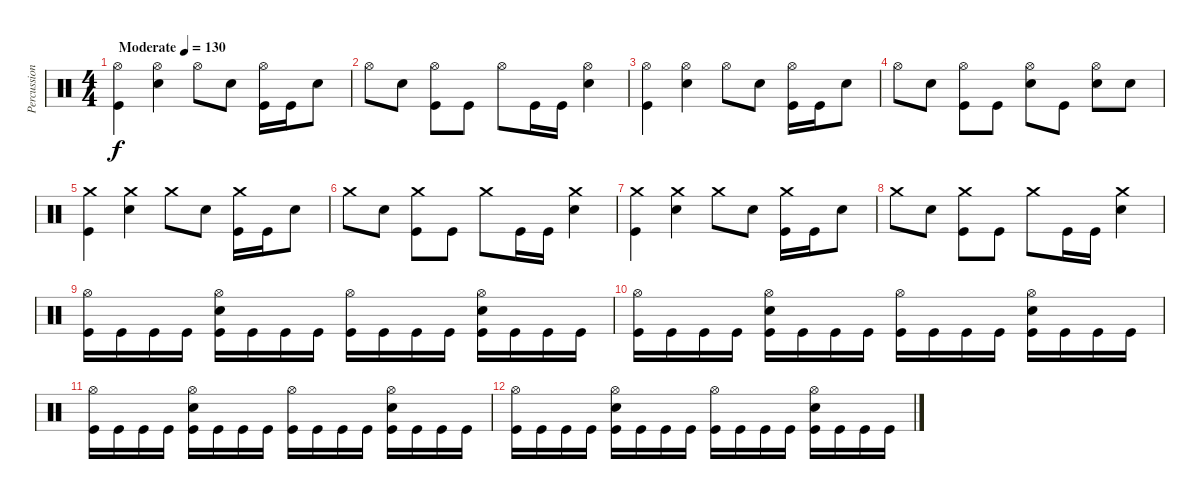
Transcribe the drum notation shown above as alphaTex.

\track ("Percussion" "Percussion") {instrument percussion}
\staff {score}
\articulation defaults
\ts (4 4)
\tempo (130 "Moderate")
\clef neutral
\ks c
("Hi-Hat (open)" "Kick (hit)").4{dy f} ("Hi-Hat (open)" "Snare (hit) 2").4 "Hi-Hat (open)".8 "Snare (hit) 2".8 ("Hi-Hat (open)" "Kick (hit)").16 "Kick (hit)".16 "Snare (hit) 2".8 |
"Hi-Hat (open)".8 "Snare (hit) 2".8 ("Hi-Hat (open)" "Kick (hit)").8 "Kick (hit)".8 "Hi-Hat (open)".8 "Kick (hit)".16 "Kick (hit)".16 ("Hi-Hat (open)" "Snare (hit) 2").4 |
("Hi-Hat (open)" "Kick (hit)").4 ("Hi-Hat (open)" "Snare (hit) 2").4 "Hi-Hat (open)".8 "Snare (hit) 2".8 ("Hi-Hat (open)" "Kick (hit)").16 "Kick (hit)".16 "Snare (hit) 2".8 |
"Hi-Hat (open)".8 "Snare (hit) 2".8 ("Hi-Hat (open)" "Kick (hit)").8 "Kick (hit)".8 ("Hi-Hat (open)" "Snare (hit) 2").8 "Kick (hit)".8 ("Hi-Hat (open)" "Snare (hit) 2").8 "Snare (hit) 2".8 |
("Crash medium (hit)" "Kick (hit)").4 ("Crash medium (hit)" "Snare (hit) 2").4 "Crash medium (hit)".8 "Snare (hit) 2".8 ("Crash medium (hit)" "Kick (hit)").16 "Kick (hit)".16 "Snare (hit) 2".8 |
"Crash medium (hit)".8 "Snare (hit) 2".8 ("Crash medium (hit)" "Kick (hit)").8 "Kick (hit)".8 "Crash medium (hit)".8 "Kick (hit)".16 "Kick (hit)".16 ("Crash medium (hit)" "Snare (hit) 2").4 |
("Crash medium (hit)" "Kick (hit)").4 ("Crash medium (hit)" "Snare (hit) 2").4 "Crash medium (hit)".8 "Snare (hit) 2".8 ("Crash medium (hit)" "Kick (hit)").16 "Kick (hit)".16 "Snare (hit) 2".8 |
"Crash medium (hit)".8 "Snare (hit) 2".8 ("Crash medium (hit)" "Kick (hit)").8 "Kick (hit)".8 "Crash medium (hit)".8 "Kick (hit)".16 "Kick (hit)".16 ("Crash medium (hit)" "Snare (hit) 2").4 |
("Hi-Hat (open)" "Kick (hit)").16 "Kick (hit)".16 "Kick (hit)".16 "Kick (hit)".16 ("Hi-Hat (open)" "Snare (hit) 2" "Kick (hit)").16 "Kick (hit)".16 "Kick (hit)".16 "Kick (hit)".16 ("Hi-Hat (open)" "Kick (hit)").16 "Kick (hit)".16 "Kick (hit)".16 "Kick (hit)".16 ("Hi-Hat (open)" "Snare (hit) 2" "Kick (hit)").16 "Kick (hit)".16 "Kick (hit)".16 "Kick (hit)".16 |
("Hi-Hat (open)" "Kick (hit)").16 "Kick (hit)".16 "Kick (hit)".16 "Kick (hit)".16 ("Hi-Hat (open)" "Snare (hit) 2" "Kick (hit)").16 "Kick (hit)".16 "Kick (hit)".16 "Kick (hit)".16 ("Hi-Hat (open)" "Kick (hit)").16 "Kick (hit)".16 "Kick (hit)".16 "Kick (hit)".16 ("Hi-Hat (open)" "Snare (hit) 2" "Kick (hit)").16 "Kick (hit)".16 "Kick (hit)".16 "Kick (hit)".16 |
("Hi-Hat (open)" "Kick (hit)").16 "Kick (hit)".16 "Kick (hit)".16 "Kick (hit)".16 ("Hi-Hat (open)" "Snare (hit) 2" "Kick (hit)").16 "Kick (hit)".16 "Kick (hit)".16 "Kick (hit)".16 ("Hi-Hat (open)" "Kick (hit)").16 "Kick (hit)".16 "Kick (hit)".16 "Kick (hit)".16 ("Hi-Hat (open)" "Snare (hit) 2" "Kick (hit)").16 "Kick (hit)".16 "Kick (hit)".16 "Kick (hit)".16 |
("Hi-Hat (open)" "Kick (hit)").16 "Kick (hit)".16 "Kick (hit)".16 "Kick (hit)".16 ("Hi-Hat (open)" "Snare (hit) 2" "Kick (hit)").16 "Kick (hit)".16 "Kick (hit)".16 "Kick (hit)".16 ("Hi-Hat (open)" "Kick (hit)").16 "Kick (hit)".16 "Kick (hit)".16 "Kick (hit)".16 ("Hi-Hat (open)" "Snare (hit) 2" "Kick (hit)").16 "Kick (hit)".16 "Kick (hit)".16 "Kick (hit)".16
